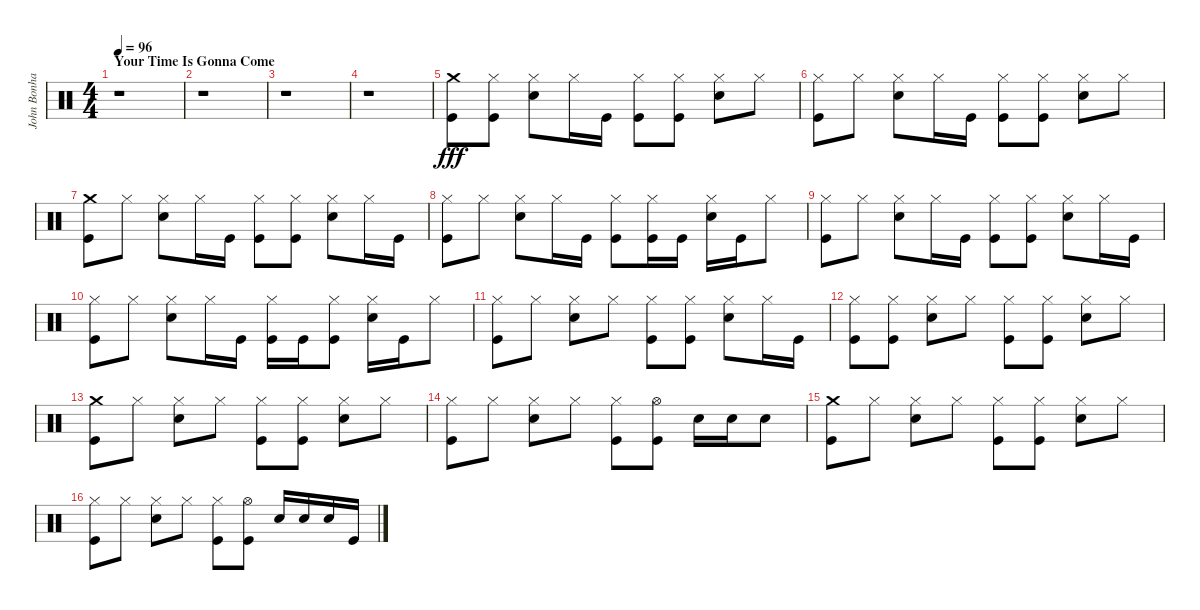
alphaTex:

\track ("John Bonham - Drums" "John Bonha") {instrument percussion}
\staff {score}
\articulation defaults
\ts (4 4)
\section ("" "Your Time Is Gonna Come")
\tempo 96
\tempo 77
\tempo 96
\clef neutral
\ks c
r.1{dy fff volume 16 balance 8} |
r.1 |
r.1 |
r.1 |
("Crash medium (hit)" "Kick (hit)").8 ("Hi-Hat (closed)" "Kick (hit)").8 ("Hi-Hat (closed)" "Snare (hit) 2").8 "Hi-Hat (closed)".16 "Kick (hit)".16 ("Hi-Hat (closed)" "Kick (hit)").8 ("Hi-Hat (closed)" "Kick (hit)").8 ("Hi-Hat (closed)" "Snare (hit) 2").8 "Hi-Hat (closed)".8 |
("Hi-Hat (closed)" "Kick (hit)").8 "Hi-Hat (closed)".8 ("Hi-Hat (closed)" "Snare (hit) 2").8 "Hi-Hat (closed)".16 "Kick (hit)".16 ("Hi-Hat (closed)" "Kick (hit)").8 ("Hi-Hat (closed)" "Kick (hit)").8 ("Hi-Hat (closed)" "Snare (hit) 2").8 "Hi-Hat (closed)".8 |
("Crash medium (hit)" "Kick (hit)").8 "Hi-Hat (closed)".8 ("Hi-Hat (closed)" "Snare (hit) 2").8 "Hi-Hat (closed)".16 "Kick (hit)".16 ("Hi-Hat (closed)" "Kick (hit)").8 ("Hi-Hat (closed)" "Kick (hit)").8 ("Hi-Hat (closed)" "Snare (hit) 2").8 "Hi-Hat (closed)".16 "Kick (hit)".16 |
("Hi-Hat (closed)" "Kick (hit)").8 "Hi-Hat (closed)".8 ("Hi-Hat (closed)" "Snare (hit) 2").8 "Hi-Hat (closed)".16 "Kick (hit)".16 ("Hi-Hat (closed)" "Kick (hit)").8 ("Hi-Hat (closed)" "Kick (hit)").16 "Kick (hit)".16 ("Hi-Hat (closed)" "Snare (hit) 2").16 "Kick (hit)".16 "Hi-Hat (closed)".8 |
("Hi-Hat (closed)" "Kick (hit)").8 "Hi-Hat (closed)".8 ("Hi-Hat (closed)" "Snare (hit) 2").8 "Hi-Hat (closed)".16 "Kick (hit)".16 ("Hi-Hat (closed)" "Kick (hit)").8 ("Hi-Hat (closed)" "Kick (hit)").8 ("Hi-Hat (closed)" "Snare (hit) 2").8 "Hi-Hat (closed)".16 "Kick (hit)".16 |
("Hi-Hat (closed)" "Kick (hit)").8 "Hi-Hat (closed)".8 ("Hi-Hat (closed)" "Snare (hit) 2").8 "Hi-Hat (closed)".16 "Kick (hit)".16 ("Hi-Hat (closed)" "Kick (hit)").16 "Kick (hit)".16 ("Hi-Hat (closed)" "Kick (hit)").8 ("Hi-Hat (closed)" "Snare (hit) 2").16 "Kick (hit)".16 "Hi-Hat (closed)".8 |
("Hi-Hat (closed)" "Kick (hit)").8 "Hi-Hat (closed)".8 ("Hi-Hat (closed)" "Snare (hit) 2").8 "Hi-Hat (closed)".8 ("Hi-Hat (closed)" "Kick (hit)").8 ("Hi-Hat (closed)" "Kick (hit)").8 ("Hi-Hat (closed)" "Snare (hit) 2").8 "Hi-Hat (closed)".16 "Kick (hit)".16 |
("Hi-Hat (closed)" "Kick (hit)").8 ("Hi-Hat (closed)" "Kick (hit)").8 ("Hi-Hat (closed)" "Snare (hit) 2").8 "Hi-Hat (closed)".8 ("Hi-Hat (closed)" "Kick (hit)").8 ("Hi-Hat (closed)" "Kick (hit)").8 ("Hi-Hat (closed)" "Snare (hit) 2").8 "Hi-Hat (closed)".8 |
("Crash medium (hit)" "Kick (hit)").8 "Hi-Hat (closed)".8 ("Hi-Hat (closed)" "Snare (hit) 2").8 "Hi-Hat (closed)".8 ("Hi-Hat (closed)" "Kick (hit)").8 ("Hi-Hat (closed)" "Kick (hit)").8 ("Hi-Hat (closed)" "Snare (hit) 2").8 "Hi-Hat (closed)".8 |
("Hi-Hat (closed)" "Kick (hit)").8 "Hi-Hat (closed)".8 ("Hi-Hat (closed)" "Snare (hit) 2").8 "Hi-Hat (closed)".8 ("Hi-Hat (closed)" "Kick (hit)").8 ("Hi-Hat (open)" "Kick (hit)").8 "Snare (hit) 2".16 "Snare (hit) 2".16 "Snare (hit) 2".8 |
("Crash medium (hit)" "Kick (hit)").8 "Hi-Hat (closed)".8 ("Hi-Hat (closed)" "Snare (hit) 2").8 "Hi-Hat (closed)".8 ("Hi-Hat (closed)" "Kick (hit)").8 ("Hi-Hat (closed)" "Kick (hit)").8 ("Hi-Hat (closed)" "Snare (hit) 2").8 "Hi-Hat (closed)".8 |
("Hi-Hat (closed)" "Kick (hit)").8 "Hi-Hat (closed)".8 ("Hi-Hat (closed)" "Snare (hit) 2").8 "Hi-Hat (closed)".8 ("Hi-Hat (closed)" "Kick (hit)").8 ("Hi-Hat (open)" "Kick (hit)").8 "Snare (hit) 2".16 "Snare (hit) 2".16 "Snare (hit) 2".16 "Kick (hit)".16
